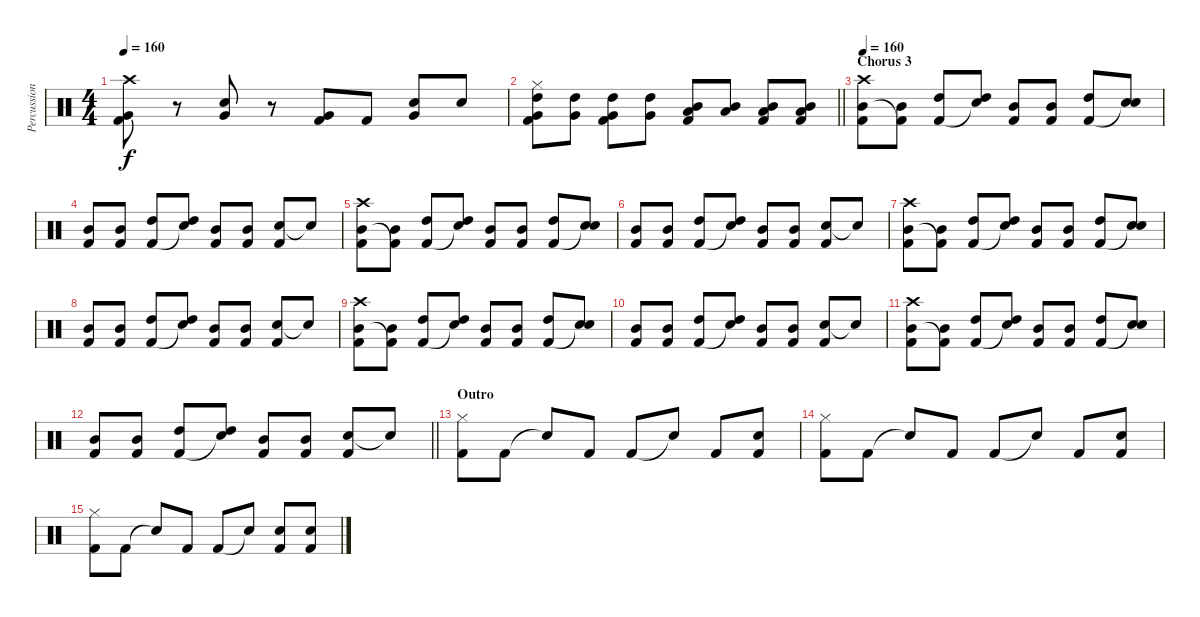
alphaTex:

\track ("Percussion" "Percussion") {instrument percussion}
\staff {score}
\articulation defaults
\ts (4 4)
\tempo 160
\clef neutral
\ks c
("Crash high (hit)" "Very Low Tom (hit)" "Kick (hit) 2").8{dy f} r.8 ("Snare (hit) 2" "Very Low Tom (hit)").8 r.8 ("Very Low Tom (hit)" "Kick (hit) 2").8 "Kick (hit) 2".8 ("Snare (hit) 2" "Very Low Tom (hit)").8 "Snare (hit) 2".8 |
\barLineRight lightlight
("Hi-Hat (closed)" "High Tom (hit)" "Very Low Tom (hit)" "Kick (hit) 2").8 ("High Tom (hit)" "Very Low Tom (hit)").8 ("High Tom (hit)" "Very Low Tom (hit)" "Kick (hit) 2").8 ("High Tom (hit)" "Very Low Tom (hit)").8 ("Mid Tom (hit)" "Low Floor Tom (hit)" "Kick (hit) 2").8 ("Mid Tom (hit)" "Low Floor Tom (hit)").8 ("Mid Tom (hit)" "Low Floor Tom (hit)" "Kick (hit) 2").8 ("Mid Tom (hit)" "Low Floor Tom (hit)" "Kick (hit) 2").8 |
\section ("" "Chorus 3")
\tempo 160
("Crash high (hit)" "Mid Tom (hit)" "Kick (hit) 2").8 ("Mid Tom (hit)" "Kick (hit) 2"{t}).8 ("High Tom (hit)" "Kick (hit) 2").8 ("High Tom (hit)" "Snare (hit)"{t}).8 ("Mid Tom (hit)" "Kick (hit) 2").8 ("Mid Tom (hit)" "Kick (hit) 2").8 ("High Tom (hit)" "Kick (hit) 2").8 ("Snare (hit) 2" "Snare (hit)"{t}).8 |
("Mid Tom (hit)" "Kick (hit) 2").8 ("Mid Tom (hit)" "Kick (hit) 2").8 ("High Tom (hit)" "Kick (hit) 2").8 ("High Tom (hit)" "Snare (hit)"{t}).8 ("Mid Tom (hit)" "Kick (hit) 2").8 ("Mid Tom (hit)" "Kick (hit) 2").8 ("Snare (hit) 2" "Kick (hit) 2").8 "Snare (hit)"{t}.8 |
("Crash high (hit)" "Mid Tom (hit)" "Kick (hit) 2").8 ("Mid Tom (hit)" "Kick (hit) 2"{t}).8 ("High Tom (hit)" "Kick (hit) 2").8 ("High Tom (hit)" "Snare (hit)"{t}).8 ("Mid Tom (hit)" "Kick (hit) 2").8 ("Mid Tom (hit)" "Kick (hit) 2").8 ("High Tom (hit)" "Kick (hit) 2").8 ("Snare (hit) 2" "Snare (hit)"{t}).8 |
("Mid Tom (hit)" "Kick (hit) 2").8 ("Mid Tom (hit)" "Kick (hit) 2").8 ("High Tom (hit)" "Kick (hit) 2").8 ("High Tom (hit)" "Snare (hit)"{t}).8 ("Mid Tom (hit)" "Kick (hit) 2").8 ("Mid Tom (hit)" "Kick (hit) 2").8 ("Snare (hit) 2" "Kick (hit) 2").8 "Snare (hit)"{t}.8 |
("Crash high (hit)" "Mid Tom (hit)" "Kick (hit) 2").8 ("Mid Tom (hit)" "Kick (hit) 2"{t}).8 ("High Tom (hit)" "Kick (hit) 2").8 ("High Tom (hit)" "Snare (hit)"{t}).8 ("Mid Tom (hit)" "Kick (hit) 2").8 ("Mid Tom (hit)" "Kick (hit) 2").8 ("High Tom (hit)" "Kick (hit) 2").8 ("Snare (hit) 2" "Snare (hit)"{t}).8 |
("Mid Tom (hit)" "Kick (hit) 2").8 ("Mid Tom (hit)" "Kick (hit) 2").8 ("High Tom (hit)" "Kick (hit) 2").8 ("High Tom (hit)" "Snare (hit)"{t}).8 ("Mid Tom (hit)" "Kick (hit) 2").8 ("Mid Tom (hit)" "Kick (hit) 2").8 ("Snare (hit) 2" "Kick (hit) 2").8 "Snare (hit)"{t}.8 |
("Crash high (hit)" "Mid Tom (hit)" "Kick (hit) 2").8 ("Mid Tom (hit)" "Kick (hit) 2"{t}).8 ("High Tom (hit)" "Kick (hit) 2").8 ("High Tom (hit)" "Snare (hit)"{t}).8 ("Mid Tom (hit)" "Kick (hit) 2").8 ("Mid Tom (hit)" "Kick (hit) 2").8 ("High Tom (hit)" "Kick (hit) 2").8 ("Snare (hit) 2" "Snare (hit)"{t}).8 |
("Mid Tom (hit)" "Kick (hit) 2").8 ("Mid Tom (hit)" "Kick (hit) 2").8 ("High Tom (hit)" "Kick (hit) 2").8 ("High Tom (hit)" "Snare (hit)"{t}).8 ("Mid Tom (hit)" "Kick (hit) 2").8 ("Mid Tom (hit)" "Kick (hit) 2").8 ("Snare (hit) 2" "Kick (hit) 2").8 "Snare (hit)"{t}.8 |
("Crash high (hit)" "Mid Tom (hit)" "Kick (hit) 2").8 ("Mid Tom (hit)" "Kick (hit) 2"{t}).8 ("High Tom (hit)" "Kick (hit) 2").8 ("High Tom (hit)" "Snare (hit)"{t}).8 ("Mid Tom (hit)" "Kick (hit) 2").8 ("Mid Tom (hit)" "Kick (hit) 2").8 ("High Tom (hit)" "Kick (hit) 2").8 ("Snare (hit) 2" "Snare (hit)"{t}).8 |
\barLineRight lightlight
("Mid Tom (hit)" "Kick (hit) 2").8 ("Mid Tom (hit)" "Kick (hit) 2").8 ("High Tom (hit)" "Kick (hit) 2").8 ("High Tom (hit)" "Snare (hit)"{t}).8 ("Mid Tom (hit)" "Kick (hit) 2").8 ("Mid Tom (hit)" "Kick (hit) 2").8 ("Snare (hit) 2" "Kick (hit) 2").8 "Snare (hit)"{t}.8 |
\section ("" "Outro")
("Hi-Hat (closed)" "Kick (hit) 2").8 "Kick (hit) 2".8 "Snare (hit)"{t}.8 "Kick (hit) 2".8 "Kick (hit) 2".8 "Snare (hit)"{t}.8 "Kick (hit) 2".8 ("Snare (hit) 2" "Kick (hit) 2").8 |
("Hi-Hat (closed)" "Kick (hit) 2").8 "Kick (hit) 2".8 "Snare (hit)"{t}.8 "Kick (hit) 2".8 "Kick (hit) 2".8 "Snare (hit)"{t}.8 "Kick (hit) 2".8 ("Snare (hit) 2" "Kick (hit) 2").8 |
("Hi-Hat (closed)" "Kick (hit) 2").8 "Kick (hit) 2".8 "Snare (hit)"{t}.8 "Kick (hit) 2".8 "Kick (hit) 2".8 "Snare (hit)"{t}.8 ("Snare (hit) 2" "Kick (hit) 2").8 ("Snare (hit) 2" "Kick (hit) 2").8
